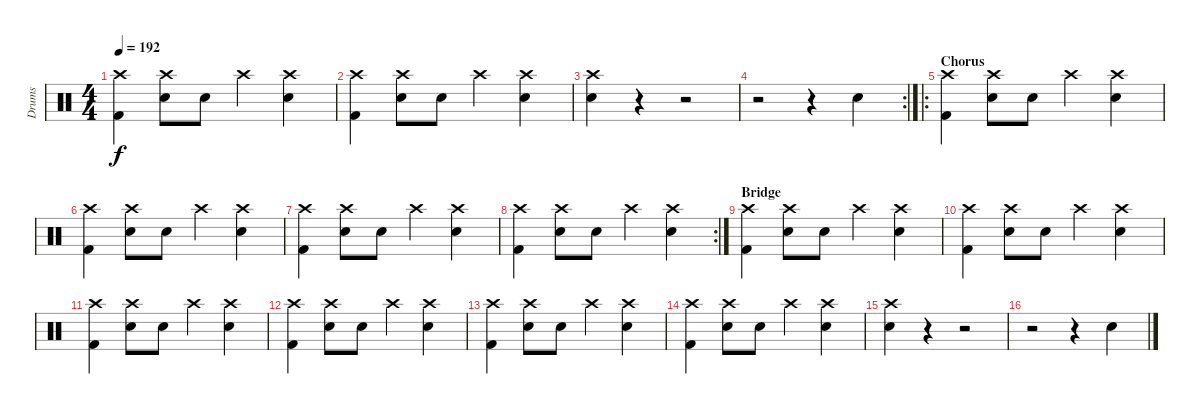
\track ("Drums" "Drums") {instrument percussion}
\staff {score}
\articulation defaults
\ts (4 4)
\tempo 192
\clef neutral
\ks c
("Crash high (hit)" "Kick (hit) 2").4{dy f} ("Crash high (hit)" "Electric Snare (hit)").8 "Electric Snare (hit)".8 "Crash high (hit)".4 ("Crash high (hit)" "Electric Snare (hit)").4 |
("Crash high (hit)" "Kick (hit) 2").4 ("Crash high (hit)" "Electric Snare (hit)").8 "Electric Snare (hit)".8 "Crash high (hit)".4 ("Crash high (hit)" "Electric Snare (hit)").4 |
("Crash high (hit)" "Electric Snare (hit)").4 r.4 r.2 |
\rc 2
r.2 r.4 "Electric Snare (hit)".4 |
\ro
\section ("" "Chorus")
("Crash high (hit)" "Kick (hit) 2").4 ("Crash high (hit)" "Electric Snare (hit)").8 "Electric Snare (hit)".8 "Crash high (hit)".4 ("Crash high (hit)" "Electric Snare (hit)").4 |
("Crash high (hit)" "Kick (hit) 2").4 ("Crash high (hit)" "Electric Snare (hit)").8 "Electric Snare (hit)".8 "Crash high (hit)".4 ("Crash high (hit)" "Electric Snare (hit)").4 |
("Crash high (hit)" "Kick (hit) 2").4 ("Crash high (hit)" "Electric Snare (hit)").8 "Electric Snare (hit)".8 "Crash high (hit)".4 ("Crash high (hit)" "Electric Snare (hit)").4 |
\rc 2
("Crash high (hit)" "Kick (hit) 2").4 ("Crash high (hit)" "Electric Snare (hit)").8 "Electric Snare (hit)".8 "Crash high (hit)".4 ("Crash high (hit)" "Electric Snare (hit)").4 |
\section ("" "Bridge")
("Crash high (hit)" "Kick (hit) 2").4 ("Crash high (hit)" "Electric Snare (hit)").8 "Electric Snare (hit)".8 "Crash high (hit)".4 ("Crash high (hit)" "Electric Snare (hit)").4 |
("Crash high (hit)" "Kick (hit) 2").4 ("Crash high (hit)" "Electric Snare (hit)").8 "Electric Snare (hit)".8 "Crash high (hit)".4 ("Crash high (hit)" "Electric Snare (hit)").4 |
("Crash high (hit)" "Kick (hit) 2").4 ("Crash high (hit)" "Electric Snare (hit)").8 "Electric Snare (hit)".8 "Crash high (hit)".4 ("Crash high (hit)" "Electric Snare (hit)").4 |
("Crash high (hit)" "Kick (hit) 2").4 ("Crash high (hit)" "Electric Snare (hit)").8 "Electric Snare (hit)".8 "Crash high (hit)".4 ("Crash high (hit)" "Electric Snare (hit)").4 |
("Crash high (hit)" "Kick (hit) 2").4 ("Crash high (hit)" "Electric Snare (hit)").8 "Electric Snare (hit)".8 "Crash high (hit)".4 ("Crash high (hit)" "Electric Snare (hit)").4 |
("Crash high (hit)" "Kick (hit) 2").4 ("Crash high (hit)" "Electric Snare (hit)").8 "Electric Snare (hit)".8 "Crash high (hit)".4 ("Crash high (hit)" "Electric Snare (hit)").4 |
("Crash high (hit)" "Electric Snare (hit)").4 r.4 r.2 |
r.2 r.4 "Electric Snare (hit)".4
